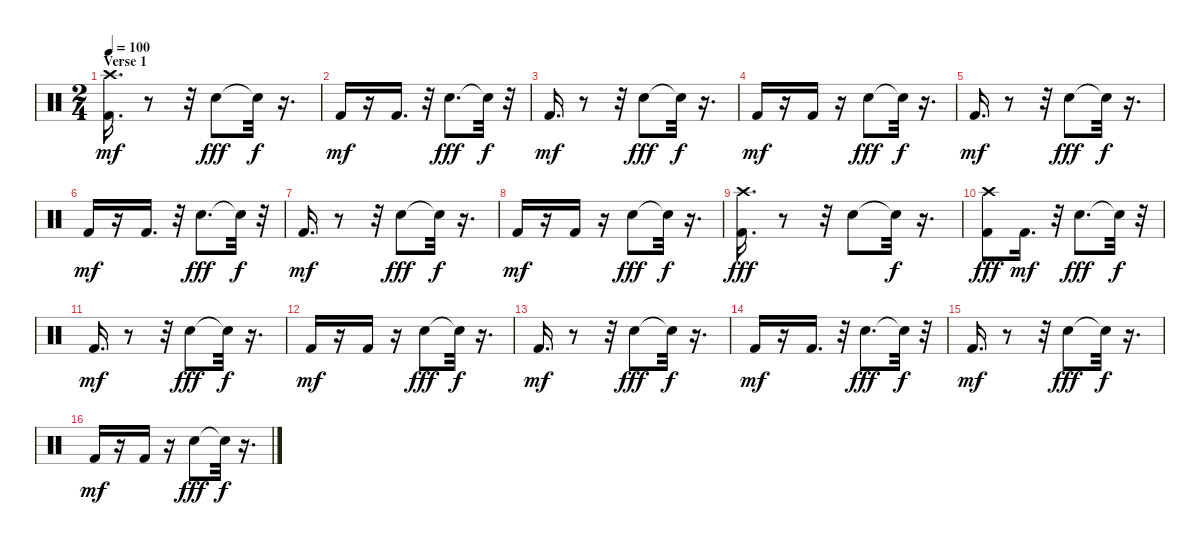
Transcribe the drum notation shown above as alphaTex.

\track "" {instrument percussion}
\staff {score}
\articulation defaults
\ts (2 4)
\section ("" "Verse 1")
\tempo 100
\clef neutral
\ks c
("Kick (hit) 2" "Crash high (hit)").16{d dy mf} r.8 r.32 "Snare (hit) 2".8{dy fff} "Snare (hit)"{t}.32{dy f} r.16{d} |
"Kick (hit) 2".16{dy mf} r.16 "Kick (hit) 2".16{d} r.32 "Snare (hit) 2".8{d dy fff} "Snare (hit)"{t}.32{dy f} r.32 |
"Kick (hit) 2".16{d dy mf} r.8 r.32 "Snare (hit) 2".8{dy fff} "Snare (hit)"{t}.32{dy f} r.16{d} |
"Kick (hit) 2".16{dy mf} r.16 "Kick (hit) 2".16 r.16 "Snare (hit) 2".8{dy fff} "Snare (hit)"{t}.32{dy f} r.16{d} |
"Kick (hit) 2".16{d dy mf} r.8 r.32 "Snare (hit) 2".8{dy fff} "Snare (hit)"{t}.32{dy f} r.16{d} |
"Kick (hit) 2".16{dy mf} r.16 "Kick (hit) 2".16{d} r.32 "Snare (hit) 2".8{d dy fff} "Snare (hit)"{t}.32{dy f} r.32 |
"Kick (hit) 2".16{d dy mf} r.8 r.32 "Snare (hit) 2".8{dy fff} "Snare (hit)"{t}.32{dy f} r.16{d} |
"Kick (hit) 2".16{dy mf} r.16 "Kick (hit) 2".16 r.16 "Snare (hit) 2".8{dy fff} "Snare (hit)"{t}.32{dy f} r.16{d} |
("Kick (hit) 2" "Crash high (hit)").16{d dy fff} r.8 r.32 "Snare (hit) 2".8 "Snare (hit)"{t}.32{dy f} r.16{d} |
("Kick (hit) 2" "Crash high (hit)").8{dy fff} "Kick (hit) 2".16{d dy mf} r.32 "Snare (hit) 2".8{d dy fff} "Snare (hit)"{t}.32{dy f} r.32 |
"Kick (hit) 2".16{d dy mf} r.8 r.32 "Snare (hit) 2".8{dy fff} "Snare (hit)"{t}.32{dy f} r.16{d} |
"Kick (hit) 2".16{dy mf} r.16 "Kick (hit) 2".16 r.16 "Snare (hit) 2".8{dy fff} "Snare (hit)"{t}.32{dy f} r.16{d} |
"Kick (hit) 2".16{d dy mf} r.8 r.32 "Snare (hit) 2".8{dy fff} "Snare (hit)"{t}.32{dy f} r.16{d} |
"Kick (hit) 2".16{dy mf} r.16 "Kick (hit) 2".16{d} r.32 "Snare (hit) 2".8{d dy fff} "Snare (hit)"{t}.32{dy f} r.32 |
"Kick (hit) 2".16{d dy mf} r.8 r.32 "Snare (hit) 2".8{dy fff} "Snare (hit)"{t}.32{dy f} r.16{d} |
"Kick (hit) 2".16{dy mf} r.16 "Kick (hit) 2".16 r.16 "Snare (hit) 2".8{dy fff} "Snare (hit)"{t}.32{dy f} r.16{d}
